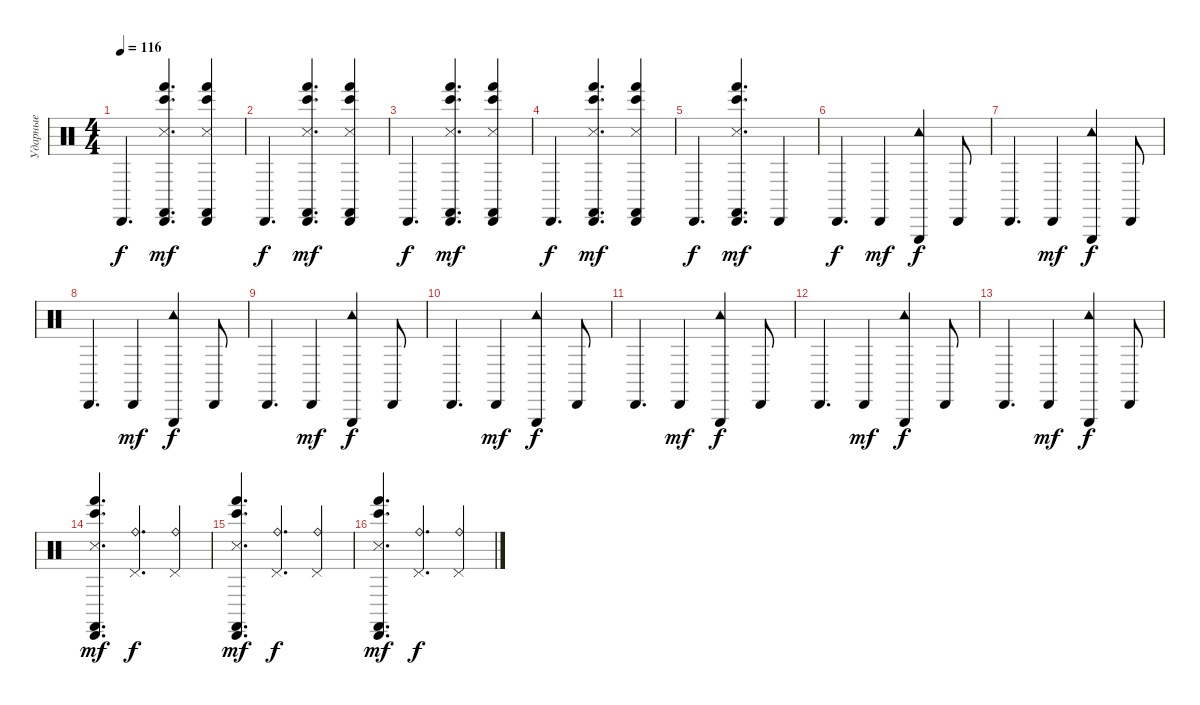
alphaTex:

\track ("Ударные" "Ударные") {instrument percussion}
\staff {score}
\articulation defaults
\ts (4 4)
\tempo 116
\clef neutral
\ks c "Cabasa (hit)".4{d dy f}
("Castanets (hit)" "Hand (hit)" "Snare (side stick) 3" "Bongo High (hit)" "Cabasa (hit)").4{d dy mf} ("Castanets (hit)" "Hand (hit)" "Snare (side stick) 3" "Bongo High (hit)" "Cabasa (hit)").4 |
"Cabasa (hit)".4{d dy f} ("Castanets (hit)" "Hand (hit)" "Snare (side stick) 3" "Bongo High (hit)" "Cabasa (hit)").4{d dy mf} ("Castanets (hit)" "Hand (hit)" "Snare (side stick) 3" "Bongo High (hit)" "Cabasa (hit)").4 |
"Cabasa (hit)".4{d dy f} ("Castanets (hit)" "Hand (hit)" "Snare (side stick) 3" "Bongo High (hit)" "Cabasa (hit)").4{d dy mf} ("Castanets (hit)" "Hand (hit)" "Snare (side stick) 3" "Bongo High (hit)" "Cabasa (hit)").4 |
"Cabasa (hit)".4{d dy f} ("Castanets (hit)" "Hand (hit)" "Snare (side stick) 3" "Bongo High (hit)" "Cabasa (hit)").4{d dy mf} ("Castanets (hit)" "Hand (hit)" "Snare (side stick) 3" "Bongo High (hit)" "Cabasa (hit)").4 |
"Cabasa (hit)".4{d dy f} ("Castanets (hit)" "Hand (hit)" "Snare (side stick) 3" "Bongo High (hit)" "Cabasa (hit)").4{d dy mf} "Cabasa (hit)".4 |
"Cabasa (hit)".4{d dy f} "Cabasa (hit)".4{dy mf} ("Tambourine (hit)" "Triangle (hit)").4{dy f} "Cabasa (hit)".8 |
"Cabasa (hit)".4{d} "Cabasa (hit)".4{dy mf} ("Tambourine (hit)" "Triangle (hit)").4{dy f} "Cabasa (hit)".8 |
"Cabasa (hit)".4{d} "Cabasa (hit)".4{dy mf} ("Tambourine (hit)" "Triangle (hit)").4{dy f} "Cabasa (hit)".8 |
"Cabasa (hit)".4{d} "Cabasa (hit)".4{dy mf} ("Tambourine (hit)" "Triangle (hit)").4{dy f} "Cabasa (hit)".8 |
"Cabasa (hit)".4{d} "Cabasa (hit)".4{dy mf} ("Tambourine (hit)" "Triangle (hit)").4{dy f} "Cabasa (hit)".8 |
"Cabasa (hit)".4{d} "Cabasa (hit)".4{dy mf} ("Tambourine (hit)" "Triangle (hit)").4{dy f} "Cabasa (hit)".8 |
"Cabasa (hit)".4{d} "Cabasa (hit)".4{dy mf} ("Tambourine (hit)" "Triangle (hit)").4{dy f} "Cabasa (hit)".8 |
"Cabasa (hit)".4{d} "Cabasa (hit)".4{dy mf} ("Tambourine (hit)" "Triangle (hit)").4{dy f} "Cabasa (hit)".8 |
("Castanets (hit)" "Hand (hit)" "Snare (side stick) 3" "Bongo High (hit)" "Cabasa (hit)").4{d dy mf} ("Pedal Hi-Hat (hit)" "Ride (bell)").4{d dy f} ("Pedal Hi-Hat (hit)" "Ride (bell)").4 |
("Castanets (hit)" "Hand (hit)" "Snare (side stick) 3" "Bongo High (hit)" "Cabasa (hit)").4{d dy mf} ("Pedal Hi-Hat (hit)" "Ride (bell)").4{d dy f} ("Pedal Hi-Hat (hit)" "Ride (bell)").4 |
("Castanets (hit)" "Hand (hit)" "Snare (side stick) 3" "Bongo High (hit)" "Cabasa (hit)").4{d dy mf} ("Pedal Hi-Hat (hit)" "Ride (bell)").4{d dy f} ("Pedal Hi-Hat (hit)" "Ride (bell)").4
